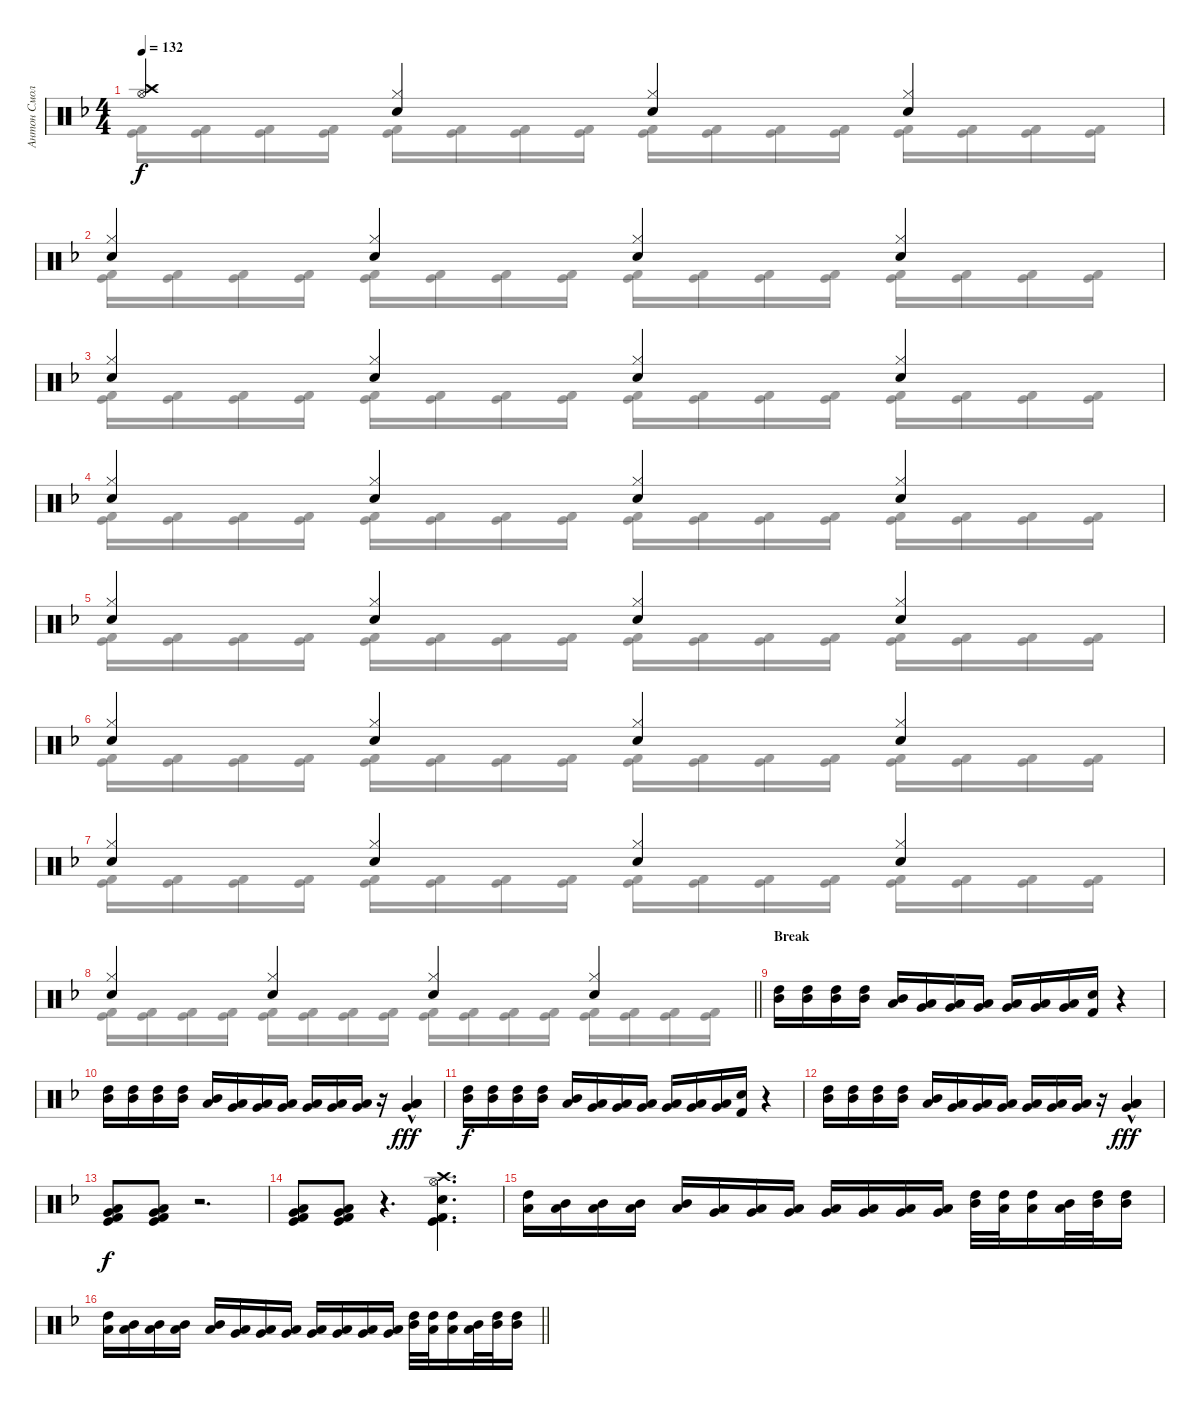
\track ("Антон Смольянин" "Антон Смол") {instrument percussion}
\staff {score}
\articulation defaults
\voice
\ts (4 4)
\tempo 132
\clef neutral
\ks f
("Hi-Hat (open)" "Crash high (hit)").4{dy f} ("Hi-Hat (closed)" "Snare (hit) 2").4 ("Hi-Hat (closed)" "Snare (hit) 2").4 ("Hi-Hat (closed)" "Snare (hit) 2").4 |
("Hi-Hat (closed)" "Snare (hit) 2").4 ("Hi-Hat (closed)" "Snare (hit) 2").4 ("Hi-Hat (closed)" "Snare (hit) 2").4 ("Hi-Hat (closed)" "Snare (hit) 2").4 |
("Hi-Hat (closed)" "Snare (hit) 2").4 ("Hi-Hat (closed)" "Snare (hit) 2").4 ("Hi-Hat (closed)" "Snare (hit) 2").4 ("Hi-Hat (closed)" "Snare (hit) 2").4 |
("Hi-Hat (closed)" "Snare (hit) 2").4 ("Hi-Hat (closed)" "Snare (hit) 2").4 ("Hi-Hat (closed)" "Snare (hit) 2").4 ("Hi-Hat (closed)" "Snare (hit) 2").4 |
("Hi-Hat (closed)" "Snare (hit) 2").4 ("Hi-Hat (closed)" "Snare (hit) 2").4 ("Hi-Hat (closed)" "Snare (hit) 2").4 ("Hi-Hat (closed)" "Snare (hit) 2").4 |
("Hi-Hat (closed)" "Snare (hit) 2").4 ("Hi-Hat (closed)" "Snare (hit) 2").4 ("Hi-Hat (closed)" "Snare (hit) 2").4 ("Hi-Hat (closed)" "Snare (hit) 2").4 |
("Hi-Hat (closed)" "Snare (hit) 2").4 ("Hi-Hat (closed)" "Snare (hit) 2").4 ("Hi-Hat (closed)" "Snare (hit) 2").4 ("Hi-Hat (closed)" "Snare (hit) 2").4 |
\barLineRight lightlight
("Hi-Hat (closed)" "Snare (hit) 2").4 ("Hi-Hat (closed)" "Snare (hit) 2").4 ("Hi-Hat (closed)" "Snare (hit) 2").4 ("Hi-Hat (closed)" "Snare (hit) 2").4 |
\section ("" "Break")
("High Tom (hit)" "Mid Tom (hit)").16 ("High Tom (hit)" "Mid Tom (hit)").16 ("Mid Tom (hit)" "High Tom (hit)").16 ("Mid Tom (hit)" "High Tom (hit)").16 ("Low Tom (hit)" "Mid Tom (hit)").16 ("Very Low Tom (hit)" "Low Tom (hit)").16 ("Very Low Tom (hit)" "Low Tom (hit)").16 ("Very Low Tom (hit)" "Low Tom (hit)").16 ("Very Low Tom (hit)" "Low Tom (hit)").16 ("Very Low Tom (hit)" "Low Tom (hit)").16 ("Very Low Tom (hit)" "Low Tom (hit)").16 ("Kick (hit) 2" "Snare (hit) 2").16 r.4 |
("High Tom (hit)" "Mid Tom (hit)").16 ("High Tom (hit)" "Mid Tom (hit)").16 ("Mid Tom (hit)" "High Tom (hit)").16 ("Mid Tom (hit)" "High Tom (hit)").16 ("Low Tom (hit)" "Mid Tom (hit)").16 ("Very Low Tom (hit)" "Low Tom (hit)").16 ("Very Low Tom (hit)" "Low Tom (hit)").16 ("Very Low Tom (hit)" "Low Tom (hit)").16 ("Very Low Tom (hit)" "Low Tom (hit)").16 ("Very Low Tom (hit)" "Low Tom (hit)").16 ("Very Low Tom (hit)" "Low Tom (hit)").16 r.16 ("Low Floor Tom (hit)"{hac} "Low Tom (hit)"{hac} "Very Low Tom (hit)"{hac}).4{dy fff} |
("High Tom (hit)" "Mid Tom (hit)").16{dy f} ("High Tom (hit)" "Mid Tom (hit)").16 ("Mid Tom (hit)" "High Tom (hit)").16 ("Mid Tom (hit)" "High Tom (hit)").16 ("Low Tom (hit)" "Mid Tom (hit)").16 ("Very Low Tom (hit)" "Low Tom (hit)").16 ("Very Low Tom (hit)" "Low Tom (hit)").16 ("Very Low Tom (hit)" "Low Tom (hit)").16 ("Very Low Tom (hit)" "Low Tom (hit)").16 ("Very Low Tom (hit)" "Low Tom (hit)").16 ("Very Low Tom (hit)" "Low Tom (hit)").16 ("Kick (hit) 2" "Snare (hit) 2").16 r.4 |
("High Tom (hit)" "Mid Tom (hit)").16 ("High Tom (hit)" "Mid Tom (hit)").16 ("Mid Tom (hit)" "High Tom (hit)").16 ("Mid Tom (hit)" "High Tom (hit)").16 ("Low Tom (hit)" "Mid Tom (hit)").16 ("Very Low Tom (hit)" "Low Tom (hit)").16 ("Very Low Tom (hit)" "Low Tom (hit)").16 ("Very Low Tom (hit)" "Low Tom (hit)").16 ("Very Low Tom (hit)" "Low Tom (hit)").16 ("Very Low Tom (hit)" "Low Tom (hit)").16 ("Very Low Tom (hit)" "Low Tom (hit)").16 r.16 ("Low Floor Tom (hit)"{hac} "Low Tom (hit)"{hac} "Very Low Tom (hit)"{hac}).4{dy fff} |
("Kick (hit) 2" "Kick (hit)" "Low Floor Tom (hit)" "Very Low Tom (hit)").8{dy f} ("Kick (hit) 2" "Kick (hit)" "Low Floor Tom (hit)" "Very Low Tom (hit)").8 r.2{d} |
("Kick (hit) 2" "Kick (hit)" "Low Floor Tom (hit)" "Very Low Tom (hit)").8 ("Kick (hit) 2" "Kick (hit)" "Low Floor Tom (hit)" "Very Low Tom (hit)").8 r.4{d} ("Kick (hit) 2" "Kick (hit)" "Snare (hit) 2" "Crash high (hit)" "Hi-Hat (open)").4{d} |
("High Tom (hit)" "Low Tom (hit)").16 ("Mid Tom (hit)" "Low Tom (hit)").16 ("Mid Tom (hit)" "Low Tom (hit)").16 ("Low Tom (hit)" "Mid Tom (hit)").16 ("Low Tom (hit)" "Mid Tom (hit)").16 ("Low Tom (hit)" "Very Low Tom (hit)").16 ("Low Tom (hit)" "Very Low Tom (hit)").16 ("Very Low Tom (hit)" "Low Floor Tom (hit)").16 ("Very Low Tom (hit)" "Low Floor Tom (hit)").16 ("Low Floor Tom (hit)" "Very Low Tom (hit)").16 ("Very Low Tom (hit)" "Low Tom (hit)").16 ("Very Low Tom (hit)" "Low Tom (hit)").16 ("High Tom (hit)" "Mid Tom (hit)").32 ("High Tom (hit)" "Low Tom (hit)").32 ("Low Tom (hit)" "High Tom (hit)").16 ("Mid Tom (hit)" "Low Tom (hit)").32 ("High Tom (hit)" "Mid Tom (hit)").32 ("Mid Tom (hit)" "High Tom (hit)").16 |
\barLineRight lightlight
("High Tom (hit)" "Low Tom (hit)").16 ("Mid Tom (hit)" "Low Tom (hit)").16 ("Mid Tom (hit)" "Low Tom (hit)").16 ("Low Tom (hit)" "Mid Tom (hit)").16 ("Low Tom (hit)" "Mid Tom (hit)").16 ("Low Tom (hit)" "Very Low Tom (hit)").16 ("Low Tom (hit)" "Very Low Tom (hit)").16 ("Very Low Tom (hit)" "Low Floor Tom (hit)").16 ("Very Low Tom (hit)" "Low Floor Tom (hit)").16 ("Low Floor Tom (hit)" "Very Low Tom (hit)").16 ("Very Low Tom (hit)" "Low Tom (hit)").16 ("Very Low Tom (hit)" "Low Tom (hit)").16 ("High Tom (hit)" "Mid Tom (hit)").32 ("High Tom (hit)" "Low Tom (hit)").32 ("Low Tom (hit)" "High Tom (hit)").16 ("Mid Tom (hit)" "Low Tom (hit)").32 ("High Tom (hit)" "Mid Tom (hit)").32 ("Mid Tom (hit)" "High Tom (hit)").16
\voice
\clef neutral
\ottava regular
\simile none
\ks f
("Kick (hit) 2" "Kick (hit)").16{dy f} ("Kick (hit) 2" "Kick (hit)").16 ("Kick (hit) 2" "Kick (hit)").16 ("Kick (hit) 2" "Kick (hit)").16 ("Kick (hit) 2" "Kick (hit)").16 ("Kick (hit) 2" "Kick (hit)").16 ("Kick (hit) 2" "Kick (hit)").16 ("Kick (hit) 2" "Kick (hit)").16 ("Kick (hit) 2" "Kick (hit)").16 ("Kick (hit) 2" "Kick (hit)").16 ("Kick (hit) 2" "Kick (hit)").16 ("Kick (hit) 2" "Kick (hit)").16 ("Kick (hit) 2" "Kick (hit)").16 ("Kick (hit) 2" "Kick (hit)").16 ("Kick (hit) 2" "Kick (hit)").16 ("Kick (hit) 2" "Kick (hit)").16 |
("Kick (hit) 2" "Kick (hit)").16 ("Kick (hit) 2" "Kick (hit)").16 ("Kick (hit) 2" "Kick (hit)").16 ("Kick (hit) 2" "Kick (hit)").16 ("Kick (hit) 2" "Kick (hit)").16 ("Kick (hit) 2" "Kick (hit)").16 ("Kick (hit) 2" "Kick (hit)").16 ("Kick (hit) 2" "Kick (hit)").16 ("Kick (hit) 2" "Kick (hit)").16 ("Kick (hit) 2" "Kick (hit)").16 ("Kick (hit) 2" "Kick (hit)").16 ("Kick (hit) 2" "Kick (hit)").16 ("Kick (hit) 2" "Kick (hit)").16 ("Kick (hit) 2" "Kick (hit)").16 ("Kick (hit) 2" "Kick (hit)").16 ("Kick (hit) 2" "Kick (hit)").16 |
("Kick (hit) 2" "Kick (hit)").16 ("Kick (hit) 2" "Kick (hit)").16 ("Kick (hit) 2" "Kick (hit)").16 ("Kick (hit) 2" "Kick (hit)").16 ("Kick (hit) 2" "Kick (hit)").16 ("Kick (hit) 2" "Kick (hit)").16 ("Kick (hit) 2" "Kick (hit)").16 ("Kick (hit) 2" "Kick (hit)").16 ("Kick (hit) 2" "Kick (hit)").16 ("Kick (hit) 2" "Kick (hit)").16 ("Kick (hit) 2" "Kick (hit)").16 ("Kick (hit) 2" "Kick (hit)").16 ("Kick (hit) 2" "Kick (hit)").16 ("Kick (hit) 2" "Kick (hit)").16 ("Kick (hit) 2" "Kick (hit)").16 ("Kick (hit) 2" "Kick (hit)").16 |
("Kick (hit) 2" "Kick (hit)").16 ("Kick (hit) 2" "Kick (hit)").16 ("Kick (hit) 2" "Kick (hit)").16 ("Kick (hit) 2" "Kick (hit)").16 ("Kick (hit) 2" "Kick (hit)").16 ("Kick (hit) 2" "Kick (hit)").16 ("Kick (hit) 2" "Kick (hit)").16 ("Kick (hit) 2" "Kick (hit)").16 ("Kick (hit) 2" "Kick (hit)").16 ("Kick (hit) 2" "Kick (hit)").16 ("Kick (hit) 2" "Kick (hit)").16 ("Kick (hit) 2" "Kick (hit)").16 ("Kick (hit) 2" "Kick (hit)").16 ("Kick (hit) 2" "Kick (hit)").16 ("Kick (hit) 2" "Kick (hit)").16 ("Kick (hit) 2" "Kick (hit)").16 |
("Kick (hit) 2" "Kick (hit)").16 ("Kick (hit) 2" "Kick (hit)").16 ("Kick (hit) 2" "Kick (hit)").16 ("Kick (hit) 2" "Kick (hit)").16 ("Kick (hit) 2" "Kick (hit)").16 ("Kick (hit) 2" "Kick (hit)").16 ("Kick (hit) 2" "Kick (hit)").16 ("Kick (hit) 2" "Kick (hit)").16 ("Kick (hit) 2" "Kick (hit)").16 ("Kick (hit) 2" "Kick (hit)").16 ("Kick (hit) 2" "Kick (hit)").16 ("Kick (hit) 2" "Kick (hit)").16 ("Kick (hit) 2" "Kick (hit)").16 ("Kick (hit) 2" "Kick (hit)").16 ("Kick (hit) 2" "Kick (hit)").16 ("Kick (hit) 2" "Kick (hit)").16 |
("Kick (hit) 2" "Kick (hit)").16 ("Kick (hit) 2" "Kick (hit)").16 ("Kick (hit) 2" "Kick (hit)").16 ("Kick (hit) 2" "Kick (hit)").16 ("Kick (hit) 2" "Kick (hit)").16 ("Kick (hit) 2" "Kick (hit)").16 ("Kick (hit) 2" "Kick (hit)").16 ("Kick (hit) 2" "Kick (hit)").16 ("Kick (hit) 2" "Kick (hit)").16 ("Kick (hit) 2" "Kick (hit)").16 ("Kick (hit) 2" "Kick (hit)").16 ("Kick (hit) 2" "Kick (hit)").16 ("Kick (hit) 2" "Kick (hit)").16 ("Kick (hit) 2" "Kick (hit)").16 ("Kick (hit) 2" "Kick (hit)").16 ("Kick (hit) 2" "Kick (hit)").16 |
("Kick (hit) 2" "Kick (hit)").16 ("Kick (hit) 2" "Kick (hit)").16 ("Kick (hit) 2" "Kick (hit)").16 ("Kick (hit) 2" "Kick (hit)").16 ("Kick (hit) 2" "Kick (hit)").16 ("Kick (hit) 2" "Kick (hit)").16 ("Kick (hit) 2" "Kick (hit)").16 ("Kick (hit) 2" "Kick (hit)").16 ("Kick (hit) 2" "Kick (hit)").16 ("Kick (hit) 2" "Kick (hit)").16 ("Kick (hit) 2" "Kick (hit)").16 ("Kick (hit) 2" "Kick (hit)").16 ("Kick (hit) 2" "Kick (hit)").16 ("Kick (hit) 2" "Kick (hit)").16 ("Kick (hit) 2" "Kick (hit)").16 ("Kick (hit) 2" "Kick (hit)").16 |
\barLineRight lightlight
("Kick (hit) 2" "Kick (hit)").16 ("Kick (hit) 2" "Kick (hit)").16 ("Kick (hit) 2" "Kick (hit)").16 ("Kick (hit) 2" "Kick (hit)").16 ("Kick (hit) 2" "Kick (hit)").16 ("Kick (hit) 2" "Kick (hit)").16 ("Kick (hit) 2" "Kick (hit)").16 ("Kick (hit) 2" "Kick (hit)").16 ("Kick (hit) 2" "Kick (hit)").16 ("Kick (hit) 2" "Kick (hit)").16 ("Kick (hit) 2" "Kick (hit)").16 ("Kick (hit) 2" "Kick (hit)").16 ("Kick (hit) 2" "Kick (hit)").16 ("Kick (hit) 2" "Kick (hit)").16 ("Kick (hit) 2" "Kick (hit)").16 ("Kick (hit) 2" "Kick (hit)").16 |
|
|
|
|
|
|
|
\barLineRight lightlight
